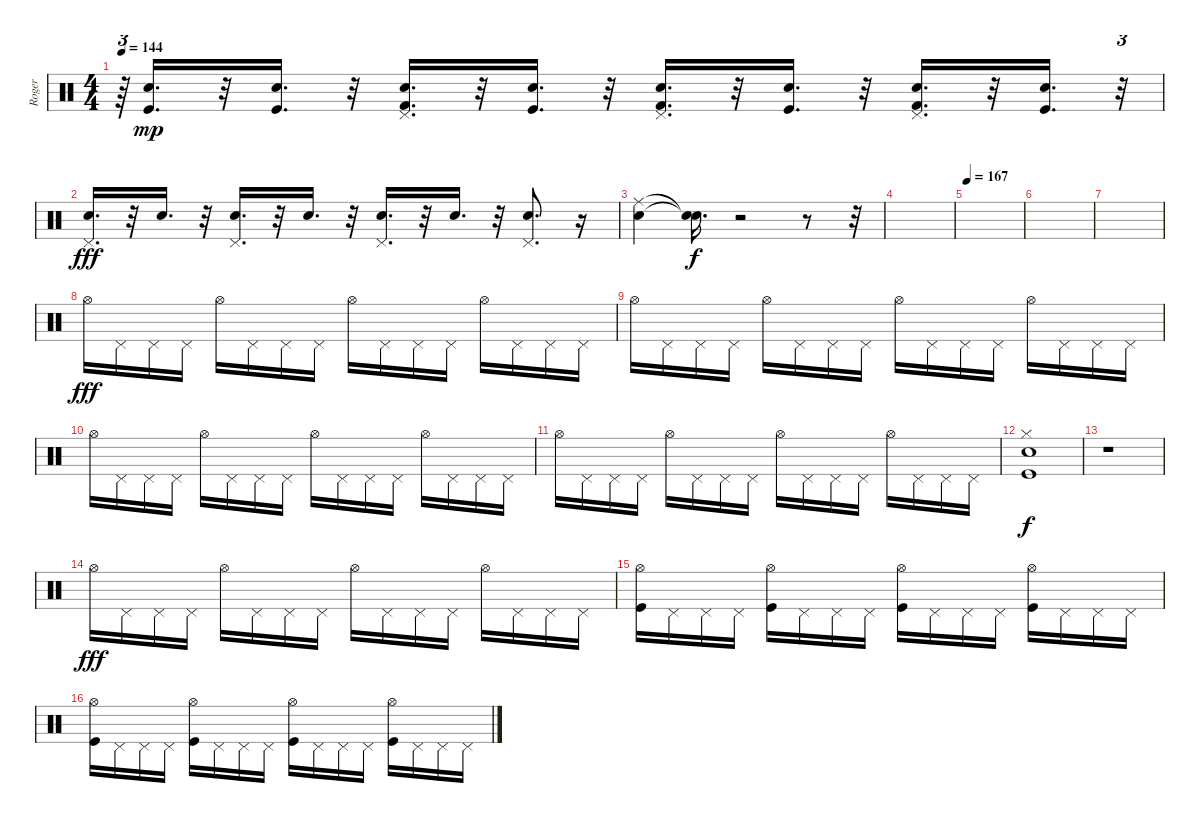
\track ("Roger" "Roger") {instrument percussion}
\staff {score}
\articulation defaults
\ts (4 4)
\tempo 144
\clef neutral
\ks c
r.64{tu (3 2) dy fff} ("Electric Snare (hit)" "Kick (hit)").16{d dy mp} r.32 ("Electric Snare (hit)" "Kick (hit)").16{d} r.32 ("Snare (hit) 2" "Pedal Hi-Hat (hit)" "Kick (hit) 2").16{d} r.32 ("Electric Snare (hit)" "Kick (hit)").16{d} r.32 ("Snare (hit) 2" "Pedal Hi-Hat (hit)" "Kick (hit) 2").16{d} r.32 ("Electric Snare (hit)" "Kick (hit)").16{d} r.32 ("Snare (hit) 2" "Pedal Hi-Hat (hit)" "Kick (hit) 2").16{d} r.32 ("Electric Snare (hit)" "Kick (hit)").16{d} r.32{tu (3 2)} |
("Snare (hit) 2" "Pedal Hi-Hat (hit)").16{d dy fff} r.32 "Electric Snare (hit)".16{d} r.32 ("Snare (hit) 2" "Pedal Hi-Hat (hit)").16{d} r.32 "Electric Snare (hit)".16{d} r.32 ("Pedal Hi-Hat (hit)" "Snare (hit) 2").16{d} r.32 "Electric Snare (hit)".16{d} r.32 ("Snare (hit) 2" "Pedal Hi-Hat (hit)").8{d} r.16 |
("Ride (middle)" "Snare (hit) 2").4 ("Snare (hit)"{t} "Snare (hit)"{t}).16{d dy f} r.2 r.8 r.32 |
|
\tempo 167
|
|
|
"Hi-Hat (open)".16{dy fff} "Pedal Hi-Hat (hit)".16 "Pedal Hi-Hat (hit)".16 "Pedal Hi-Hat (hit)".16 "Hi-Hat (open)".16 "Pedal Hi-Hat (hit)".16 "Pedal Hi-Hat (hit)".16 "Pedal Hi-Hat (hit)".16 "Hi-Hat (open)".16 "Pedal Hi-Hat (hit)".16 "Pedal Hi-Hat (hit)".16 "Pedal Hi-Hat (hit)".16 "Hi-Hat (open)".16 "Pedal Hi-Hat (hit)".16 "Pedal Hi-Hat (hit)".16 "Pedal Hi-Hat (hit)".16 |
"Hi-Hat (open)".16 "Pedal Hi-Hat (hit)".16 "Pedal Hi-Hat (hit)".16 "Pedal Hi-Hat (hit)".16 "Hi-Hat (open)".16 "Pedal Hi-Hat (hit)".16 "Pedal Hi-Hat (hit)".16 "Pedal Hi-Hat (hit)".16 "Hi-Hat (open)".16 "Pedal Hi-Hat (hit)".16 "Pedal Hi-Hat (hit)".16 "Pedal Hi-Hat (hit)".16 "Hi-Hat (open)".16 "Pedal Hi-Hat (hit)".16 "Pedal Hi-Hat (hit)".16 "Pedal Hi-Hat (hit)".16 |
"Hi-Hat (open)".16 "Pedal Hi-Hat (hit)".16 "Pedal Hi-Hat (hit)".16 "Pedal Hi-Hat (hit)".16 "Hi-Hat (open)".16 "Pedal Hi-Hat (hit)".16 "Pedal Hi-Hat (hit)".16 "Pedal Hi-Hat (hit)".16 "Hi-Hat (open)".16 "Pedal Hi-Hat (hit)".16 "Pedal Hi-Hat (hit)".16 "Pedal Hi-Hat (hit)".16 "Hi-Hat (open)".16 "Pedal Hi-Hat (hit)".16 "Pedal Hi-Hat (hit)".16 "Pedal Hi-Hat (hit)".16 |
"Hi-Hat (open)".16 "Pedal Hi-Hat (hit)".16 "Pedal Hi-Hat (hit)".16 "Pedal Hi-Hat (hit)".16 "Hi-Hat (open)".16 "Pedal Hi-Hat (hit)".16 "Pedal Hi-Hat (hit)".16 "Pedal Hi-Hat (hit)".16 "Hi-Hat (open)".16 "Pedal Hi-Hat (hit)".16 "Pedal Hi-Hat (hit)".16 "Pedal Hi-Hat (hit)".16 "Hi-Hat (open)".16 "Pedal Hi-Hat (hit)".16 "Pedal Hi-Hat (hit)".16 "Pedal Hi-Hat (hit)".16 |
("Hi-Hat (closed)" "Electric Snare (hit)" "Kick (hit)").1{dy f} |
r.1 |
"Hi-Hat (open)".16{dy fff} "Pedal Hi-Hat (hit)".16 "Pedal Hi-Hat (hit)".16 "Pedal Hi-Hat (hit)".16 "Hi-Hat (open)".16 "Pedal Hi-Hat (hit)".16 "Pedal Hi-Hat (hit)".16 "Pedal Hi-Hat (hit)".16 "Hi-Hat (open)".16 "Pedal Hi-Hat (hit)".16 "Pedal Hi-Hat (hit)".16 "Pedal Hi-Hat (hit)".16 "Hi-Hat (open)".16 "Pedal Hi-Hat (hit)".16 "Pedal Hi-Hat (hit)".16 "Pedal Hi-Hat (hit)".16 |
("Hi-Hat (open)" "Kick (hit)").16 "Pedal Hi-Hat (hit)".16 "Pedal Hi-Hat (hit)".16 "Pedal Hi-Hat (hit)".16 ("Hi-Hat (open)" "Kick (hit)").16 "Pedal Hi-Hat (hit)".16 "Pedal Hi-Hat (hit)".16 "Pedal Hi-Hat (hit)".16 ("Hi-Hat (open)" "Kick (hit)").16 "Pedal Hi-Hat (hit)".16 "Pedal Hi-Hat (hit)".16 "Pedal Hi-Hat (hit)".16 ("Hi-Hat (open)" "Kick (hit)").16 "Pedal Hi-Hat (hit)".16 "Pedal Hi-Hat (hit)".16 "Pedal Hi-Hat (hit)".16 |
("Hi-Hat (open)" "Kick (hit)").16 "Pedal Hi-Hat (hit)".16 "Pedal Hi-Hat (hit)".16 "Pedal Hi-Hat (hit)".16 ("Hi-Hat (open)" "Kick (hit)").16 "Pedal Hi-Hat (hit)".16 "Pedal Hi-Hat (hit)".16 "Pedal Hi-Hat (hit)".16 ("Hi-Hat (open)" "Kick (hit)").16 "Pedal Hi-Hat (hit)".16 "Pedal Hi-Hat (hit)".16 "Pedal Hi-Hat (hit)".16 ("Hi-Hat (open)" "Kick (hit)").16 "Pedal Hi-Hat (hit)".16 "Pedal Hi-Hat (hit)".16 "Pedal Hi-Hat (hit)".16
